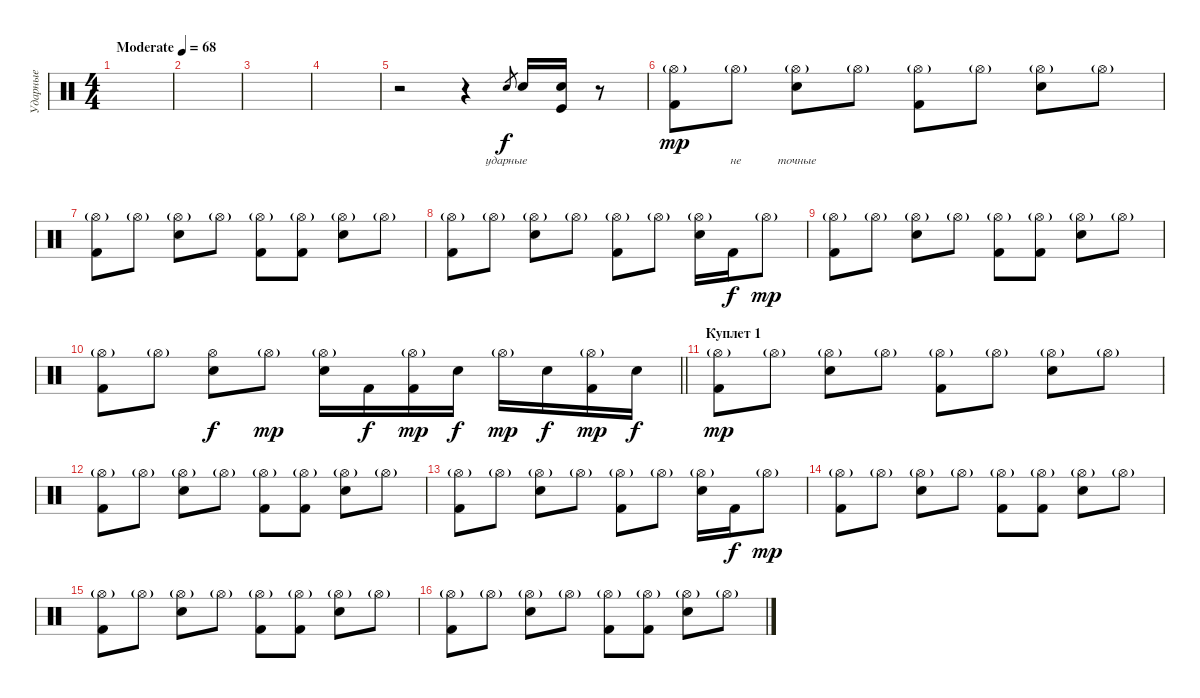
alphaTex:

\track ("Ударные" "Ударные") {instrument percussion}
\staff {score}
\articulation defaults
\ts (4 4)
\tempo (68 "Moderate")
\clef neutral
\ks c
|
|
|
|
r.2 r.4 "Snare (hit) 2".8{lyrics (0 "ударные") lyrics (1 "") lyrics (2 "") lyrics (3 "") lyrics (4 "") gr} "Snare (hit) 2".16{lyrics (0 "") lyrics (1 "") lyrics (2 "") lyrics (3 "") lyrics (4 "")} ("Snare (hit) 2" "Kick (hit)").16{lyrics (0 "") lyrics (1 "") lyrics (2 "") lyrics (3 "") lyrics (4 "")} r.8 |
("Hi-Hat (open)"{g} "Kick (hit) 2").8{lyrics (0 "") lyrics (1 "") lyrics (2 "") lyrics (3 "") lyrics (4 "") dy mp} "Hi-Hat (open)"{g}.8{lyrics (0 "не") lyrics (1 "") lyrics (2 "") lyrics (3 "") lyrics (4 "")} ("Hi-Hat (open)"{g} "Snare (hit) 2").8{lyrics (0 "точные") lyrics (1 "") lyrics (2 "") lyrics (3 "") lyrics (4 "")} "Hi-Hat (open)"{g}.8 ("Hi-Hat (open)"{g} "Kick (hit) 2").8 "Hi-Hat (open)"{g}.8 ("Hi-Hat (open)"{g} "Snare (hit) 2").8 "Hi-Hat (open)"{g}.8 |
("Hi-Hat (open)"{g} "Kick (hit) 2").8 "Hi-Hat (open)"{g}.8 ("Hi-Hat (open)"{g} "Snare (hit) 2").8 "Hi-Hat (open)"{g}.8 ("Hi-Hat (open)"{g} "Kick (hit) 2").8 ("Hi-Hat (open)"{g} "Kick (hit) 2").8 ("Hi-Hat (open)"{g} "Snare (hit) 2").8 "Hi-Hat (open)"{g}.8 |
("Hi-Hat (open)"{g} "Kick (hit) 2").8 "Hi-Hat (open)"{g}.8 ("Hi-Hat (open)"{g} "Snare (hit) 2").8 "Hi-Hat (open)"{g}.8 ("Hi-Hat (open)"{g} "Kick (hit) 2").8 "Hi-Hat (open)"{g}.8 ("Hi-Hat (open)"{g} "Snare (hit) 2").16 "Kick (hit) 2".16{dy f} "Hi-Hat (open)"{g}.8{dy mp} |
("Hi-Hat (open)"{g} "Kick (hit) 2").8 "Hi-Hat (open)"{g}.8 ("Hi-Hat (open)"{g} "Snare (hit) 2").8 "Hi-Hat (open)"{g}.8 ("Hi-Hat (open)"{g} "Kick (hit) 2").8 ("Hi-Hat (open)"{g} "Kick (hit) 2").8 ("Hi-Hat (open)"{g} "Snare (hit) 2").8 "Hi-Hat (open)"{g}.8 |
\barLineRight lightlight
("Hi-Hat (open)"{g} "Kick (hit) 2").8 "Hi-Hat (open)"{g}.8 ("Hi-Hat (open)" "Snare (hit) 2").8{dy f} "Hi-Hat (open)"{g}.8{dy mp} ("Hi-Hat (open)"{g} "Snare (hit) 2").16 "Kick (hit) 2".16{dy f} ("Hi-Hat (open)"{g} "Kick (hit) 2").16{dy mp} "Snare (hit) 2".16{dy f} "Hi-Hat (open)"{g}.16{dy mp} "Snare (hit) 2".16{dy f} ("Hi-Hat (open)"{g} "Kick (hit) 2").16{dy mp} "Snare (hit) 2".16{dy f} |
\section ("" "Куплет 1")
("Hi-Hat (open)"{g} "Kick (hit) 2").8{dy mp} "Hi-Hat (open)"{g}.8 ("Hi-Hat (open)"{g} "Snare (hit) 2").8 "Hi-Hat (open)"{g}.8 ("Hi-Hat (open)"{g} "Kick (hit) 2").8 "Hi-Hat (open)"{g}.8 ("Hi-Hat (open)"{g} "Snare (hit) 2").8 "Hi-Hat (open)"{g}.8 |
("Hi-Hat (open)"{g} "Kick (hit) 2").8 "Hi-Hat (open)"{g}.8 ("Hi-Hat (open)"{g} "Snare (hit) 2").8 "Hi-Hat (open)"{g}.8 ("Hi-Hat (open)"{g} "Kick (hit) 2").8 ("Hi-Hat (open)"{g} "Kick (hit) 2").8 ("Hi-Hat (open)"{g} "Snare (hit) 2").8 "Hi-Hat (open)"{g}.8 |
("Hi-Hat (open)"{g} "Kick (hit) 2").8 "Hi-Hat (open)"{g}.8 ("Hi-Hat (open)"{g} "Snare (hit) 2").8 "Hi-Hat (open)"{g}.8 ("Hi-Hat (open)"{g} "Kick (hit) 2").8 "Hi-Hat (open)"{g}.8 ("Hi-Hat (open)"{g} "Snare (hit) 2").16 "Kick (hit) 2".16{dy f} "Hi-Hat (open)"{g}.8{dy mp} |
("Hi-Hat (open)"{g} "Kick (hit) 2").8 "Hi-Hat (open)"{g}.8 ("Hi-Hat (open)"{g} "Snare (hit) 2").8 "Hi-Hat (open)"{g}.8 ("Hi-Hat (open)"{g} "Kick (hit) 2").8 ("Hi-Hat (open)"{g} "Kick (hit) 2").8 ("Hi-Hat (open)"{g} "Snare (hit) 2").8 "Hi-Hat (open)"{g}.8 |
("Hi-Hat (open)"{g} "Kick (hit) 2").8 "Hi-Hat (open)"{g}.8 ("Hi-Hat (open)"{g} "Snare (hit) 2").8 "Hi-Hat (open)"{g}.8 ("Hi-Hat (open)"{g} "Kick (hit) 2").8 ("Hi-Hat (open)"{g} "Kick (hit) 2").8 ("Hi-Hat (open)"{g} "Snare (hit) 2").8 "Hi-Hat (open)"{g}.8 |
("Hi-Hat (open)"{g} "Kick (hit) 2").8 "Hi-Hat (open)"{g}.8 ("Hi-Hat (open)"{g} "Snare (hit) 2").8 "Hi-Hat (open)"{g}.8 ("Hi-Hat (open)"{g} "Kick (hit) 2").8 ("Hi-Hat (open)"{g} "Kick (hit) 2").8 ("Hi-Hat (open)"{g} "Snare (hit) 2").8 "Hi-Hat (open)"{g}.8
